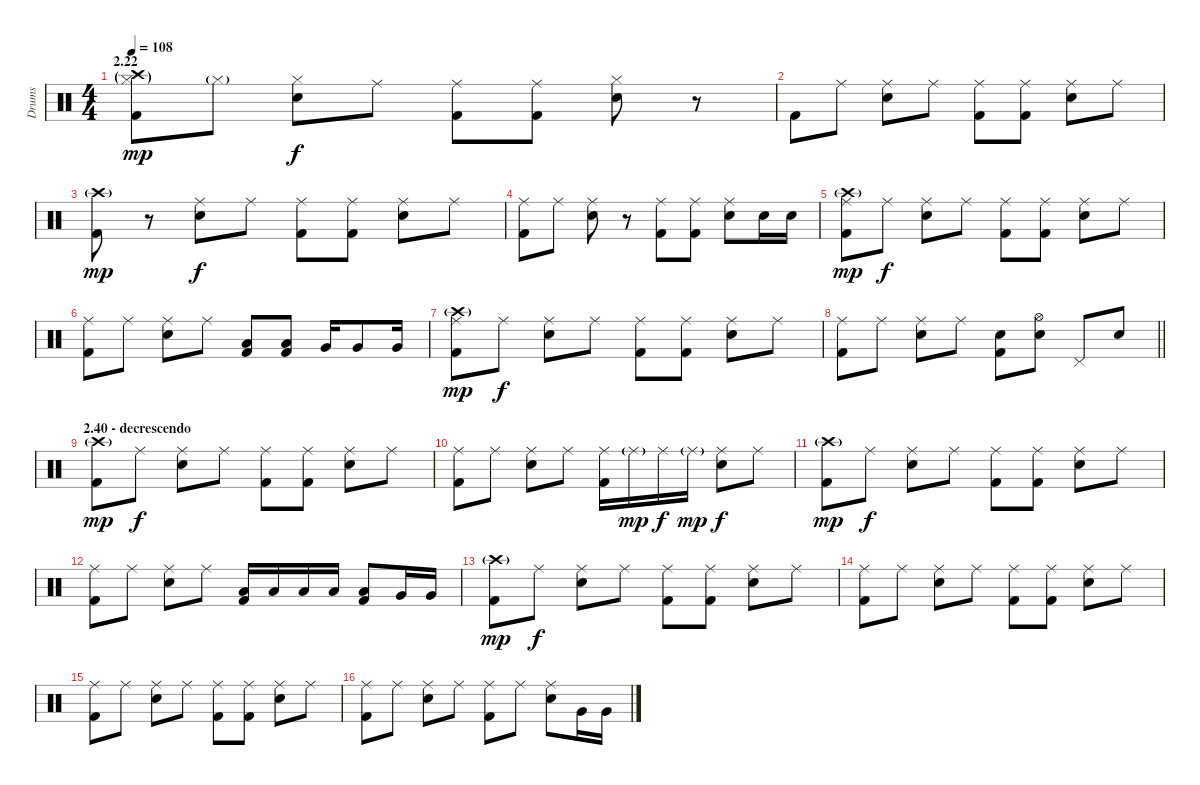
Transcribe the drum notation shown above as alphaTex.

\track ("Drums" "Drums") {instrument percussion}
\staff {score}
\articulation defaults
\ts (4 4)
\section ("" "2.22")
\tempo 108
\clef neutral
\ks c
("Crash high (hit)"{g} "Hi-Hat (closed)"{g} "Kick (hit) 2").8{dy mp} "Hi-Hat (closed)"{g}.8 ("Hi-Hat (closed)" "Electric Snare (hit)").8{dy f} "Ride (middle)".8 ("Ride (middle)" "Kick (hit) 2").8 ("Ride (middle)" "Kick (hit) 2").8 ("Hi-Hat (closed)" "Electric Snare (hit)").8 r.8 |
"Kick (hit) 2".8 "Ride (middle)".8 ("Ride (middle)" "Electric Snare (hit)").8 "Ride (middle)".8 ("Ride (middle)" "Kick (hit) 2").8 ("Ride (middle)" "Kick (hit) 2").8 ("Ride (middle)" "Electric Snare (hit)").8 "Ride (middle)".8 |
("Crash high (hit)"{g} "Kick (hit) 2").8{dy mp} r.8 ("Ride (middle)" "Electric Snare (hit)").8{dy f} "Ride (middle)".8 ("Ride (middle)" "Kick (hit) 2").8 ("Ride (middle)" "Kick (hit) 2").8 ("Ride (middle)" "Electric Snare (hit)").8 "Ride (middle)".8 |
("Ride (middle)" "Kick (hit) 2").8 "Ride (middle)".8 ("Ride (middle)" "Electric Snare (hit)").8 r.8 ("Ride (middle)" "Kick (hit) 2").8 ("Ride (middle)" "Kick (hit) 2").8 ("Ride (middle)" "Electric Snare (hit)").8 "Electric Snare (hit)".16 "Electric Snare (hit)".16 |
("Crash high (hit)"{g} "Ride (middle)" "Kick (hit) 2").8{dy mp} "Ride (middle)".8{dy f} ("Ride (middle)" "Electric Snare (hit)").8 "Ride (middle)".8 ("Ride (middle)" "Kick (hit) 2").8 ("Ride (middle)" "Kick (hit) 2").8 ("Ride (middle)" "Electric Snare (hit)").8 "Ride (middle)".8 |
("Ride (middle)" "Kick (hit) 2").8 "Ride (middle)".8 ("Ride (middle)" "Electric Snare (hit)").8 "Ride (middle)".8 ("Low Tom (hit)" "Kick (hit) 2").8 ("Low Tom (hit)" "Kick (hit) 2").8 "Very Low Tom (hit)".16 "Very Low Tom (hit)".8 "Very Low Tom (hit)".16 |
("Crash high (hit)"{g} "Ride (middle)" "Kick (hit) 2").8{dy mp} "Ride (middle)".8{dy f} ("Ride (middle)" "Electric Snare (hit)").8 "Ride (middle)".8 ("Ride (middle)" "Kick (hit) 2").8 ("Ride (middle)" "Kick (hit) 2").8 ("Ride (middle)" "Electric Snare (hit)").8 "Ride (middle)".8 |
\barLineRight lightlight
("Ride (middle)" "Kick (hit) 2").8 "Ride (middle)".8 ("Ride (middle)" "Electric Snare (hit)").8 "Ride (middle)".8 ("Electric Snare (hit)" "Kick (hit) 2").8 ("Hi-Hat (open)" "Electric Snare (hit)").8 "Pedal Hi-Hat (hit)".8 "Electric Snare (hit)".8 |
\section ("" "2.40 - decrescendo")
("Crash high (hit)"{g} "Kick (hit) 2").8{dy mp} "Ride (middle)".8{dy f} ("Ride (middle)" "Electric Snare (hit)").8 "Ride (middle)".8 ("Ride (middle)" "Kick (hit) 2").8 ("Ride (middle)" "Kick (hit) 2").8 ("Ride (middle)" "Electric Snare (hit)").8 "Ride (middle)".8 |
("Ride (middle)" "Kick (hit) 2").8 "Ride (middle)".8 ("Ride (middle)" "Electric Snare (hit)").8 "Ride (middle)".8 ("Ride (middle)" "Kick (hit) 2").16 "Ride (middle)"{g}.16{dy mp} "Ride (middle)".16{dy f} "Ride (middle)"{g}.16{dy mp} ("Ride (middle)" "Electric Snare (hit)").8{dy f} "Ride (middle)".8 |
("Crash high (hit)"{g} "Kick (hit) 2").8{dy mp} "Ride (middle)".8{dy f} ("Ride (middle)" "Electric Snare (hit)").8 "Ride (middle)".8 ("Ride (middle)" "Kick (hit) 2").8 ("Ride (middle)" "Kick (hit) 2").8 ("Ride (middle)" "Electric Snare (hit)").8 "Ride (middle)".8 |
("Ride (middle)" "Kick (hit) 2").8 "Ride (middle)".8 ("Ride (middle)" "Electric Snare (hit)").8 "Ride (middle)".8 ("Low Tom (hit)" "Kick (hit) 2").16 "Low Tom (hit)".16 "Low Tom (hit)".16 "Low Tom (hit)".16 ("Low Tom (hit)" "Kick (hit) 2").8 "Very Low Tom (hit)".16 "Very Low Tom (hit)".16 |
("Crash high (hit)"{g} "Kick (hit) 2").8{dy mp} "Ride (middle)".8{dy f} ("Ride (middle)" "Electric Snare (hit)").8 "Ride (middle)".8 ("Ride (middle)" "Kick (hit) 2").8 ("Ride (middle)" "Kick (hit) 2").8 ("Ride (middle)" "Electric Snare (hit)").8 "Ride (middle)".8 |
("Ride (middle)" "Kick (hit) 2").8 "Ride (middle)".8 ("Ride (middle)" "Electric Snare (hit)").8 "Ride (middle)".8 ("Ride (middle)" "Kick (hit) 2").8 ("Ride (middle)" "Kick (hit) 2").8 ("Ride (middle)" "Electric Snare (hit)").8 "Ride (middle)".8 |
("Ride (middle)" "Kick (hit) 2").8 "Ride (middle)".8 ("Ride (middle)" "Electric Snare (hit)").8 "Ride (middle)".8 ("Ride (middle)" "Kick (hit) 2").8 ("Ride (middle)" "Kick (hit) 2").8 ("Ride (middle)" "Electric Snare (hit)").8 "Ride (middle)".8 |
("Ride (middle)" "Kick (hit) 2").8 "Ride (middle)".8 ("Ride (middle)" "Electric Snare (hit)").8 "Ride (middle)".8 ("Ride (middle)" "Kick (hit) 2").8 "Ride (middle)".8 ("Ride (middle)" "Electric Snare (hit)").8 "Very Low Tom (hit)".16 "Very Low Tom (hit)".16
